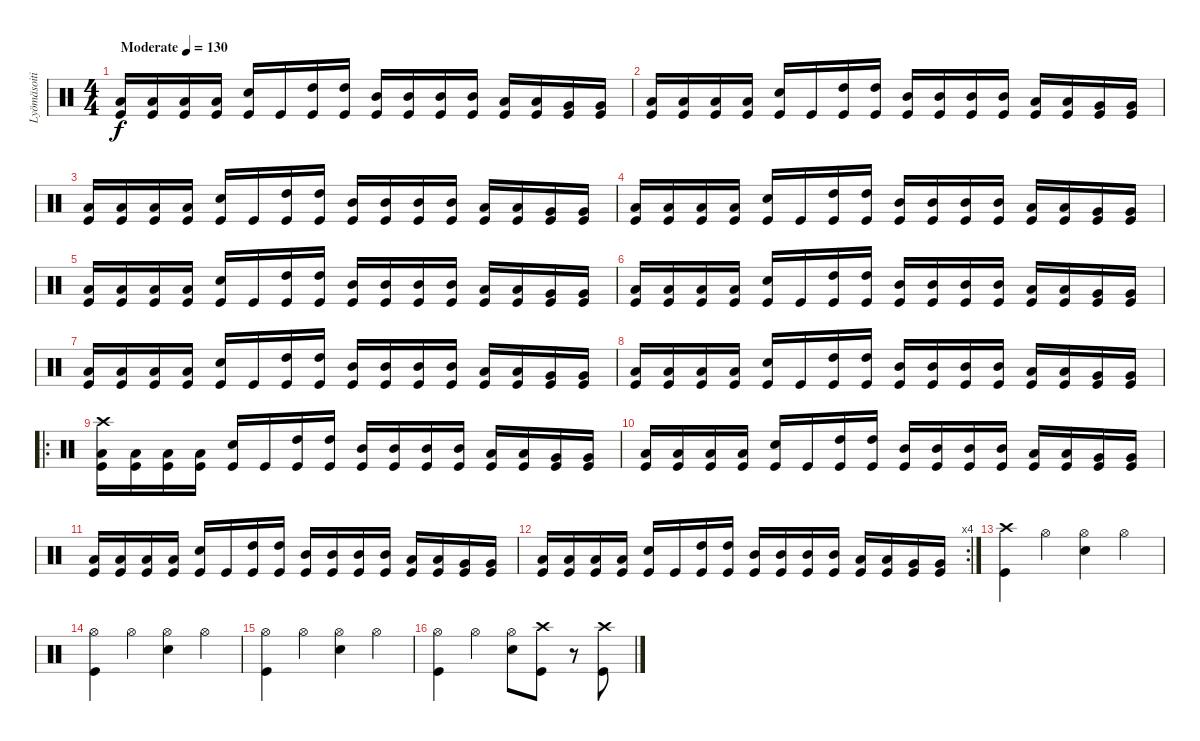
\track ("Lyömäsoitin" "Lyömäsoiti") {instrument percussion}
\staff {score}
\articulation defaults
\ts (4 4)
\tempo (130 "Moderate")
\clef neutral
\ks c
("Low Floor Tom (hit)" "Kick (hit)").16{dy f volume 12} ("Low Floor Tom (hit)" "Kick (hit)").16 ("Low Floor Tom (hit)" "Kick (hit)").16 ("Low Floor Tom (hit)" "Kick (hit)").16 ("Snare (hit) 2" "Kick (hit)").16 "Kick (hit)".16 ("High Tom (hit)" "Kick (hit)").16 ("High Tom (hit)" "Kick (hit)").16 ("Mid Tom (hit)" "Kick (hit)").16 ("Mid Tom (hit)" "Kick (hit)").16 ("Mid Tom (hit)" "Kick (hit)").16 ("Mid Tom (hit)" "Kick (hit)").16 ("Low Tom (hit)" "Kick (hit)").16 ("Low Tom (hit)" "Kick (hit)").16 ("Very Low Tom (hit)" "Kick (hit)").16 ("Very Low Tom (hit)" "Kick (hit)").16 |
("Low Floor Tom (hit)" "Kick (hit)").16 ("Low Floor Tom (hit)" "Kick (hit)").16 ("Low Floor Tom (hit)" "Kick (hit)").16 ("Low Floor Tom (hit)" "Kick (hit)").16 ("Snare (hit) 2" "Kick (hit)").16 "Kick (hit)".16 ("High Tom (hit)" "Kick (hit)").16 ("High Tom (hit)" "Kick (hit)").16 ("Mid Tom (hit)" "Kick (hit)").16 ("Mid Tom (hit)" "Kick (hit)").16 ("Mid Tom (hit)" "Kick (hit)").16 ("Mid Tom (hit)" "Kick (hit)").16 ("Low Tom (hit)" "Kick (hit)").16 ("Low Tom (hit)" "Kick (hit)").16 ("Very Low Tom (hit)" "Kick (hit)").16 ("Very Low Tom (hit)" "Kick (hit)").16 |
("Low Floor Tom (hit)" "Kick (hit)").16 ("Low Floor Tom (hit)" "Kick (hit)").16 ("Low Floor Tom (hit)" "Kick (hit)").16 ("Low Floor Tom (hit)" "Kick (hit)").16 ("Snare (hit) 2" "Kick (hit)").16 "Kick (hit)".16 ("High Tom (hit)" "Kick (hit)").16 ("High Tom (hit)" "Kick (hit)").16 ("Mid Tom (hit)" "Kick (hit)").16 ("Mid Tom (hit)" "Kick (hit)").16 ("Mid Tom (hit)" "Kick (hit)").16 ("Mid Tom (hit)" "Kick (hit)").16 ("Low Tom (hit)" "Kick (hit)").16 ("Low Tom (hit)" "Kick (hit)").16 ("Very Low Tom (hit)" "Kick (hit)").16 ("Very Low Tom (hit)" "Kick (hit)").16 |
("Low Floor Tom (hit)" "Kick (hit)").16 ("Low Floor Tom (hit)" "Kick (hit)").16 ("Low Floor Tom (hit)" "Kick (hit)").16 ("Low Floor Tom (hit)" "Kick (hit)").16 ("Snare (hit) 2" "Kick (hit)").16 "Kick (hit)".16 ("High Tom (hit)" "Kick (hit)").16 ("High Tom (hit)" "Kick (hit)").16 ("Mid Tom (hit)" "Kick (hit)").16 ("Mid Tom (hit)" "Kick (hit)").16 ("Mid Tom (hit)" "Kick (hit)").16 ("Mid Tom (hit)" "Kick (hit)").16 ("Low Tom (hit)" "Kick (hit)").16 ("Low Tom (hit)" "Kick (hit)").16 ("Very Low Tom (hit)" "Kick (hit)").16 ("Very Low Tom (hit)" "Kick (hit)").16 |
("Low Floor Tom (hit)" "Kick (hit)").16 ("Low Floor Tom (hit)" "Kick (hit)").16 ("Low Floor Tom (hit)" "Kick (hit)").16 ("Low Floor Tom (hit)" "Kick (hit)").16 ("Snare (hit) 2" "Kick (hit)").16 "Kick (hit)".16 ("High Tom (hit)" "Kick (hit)").16 ("High Tom (hit)" "Kick (hit)").16 ("Mid Tom (hit)" "Kick (hit)").16 ("Mid Tom (hit)" "Kick (hit)").16 ("Mid Tom (hit)" "Kick (hit)").16 ("Mid Tom (hit)" "Kick (hit)").16 ("Low Tom (hit)" "Kick (hit)").16 ("Low Tom (hit)" "Kick (hit)").16 ("Very Low Tom (hit)" "Kick (hit)").16 ("Very Low Tom (hit)" "Kick (hit)").16 |
("Low Floor Tom (hit)" "Kick (hit)").16 ("Low Floor Tom (hit)" "Kick (hit)").16 ("Low Floor Tom (hit)" "Kick (hit)").16 ("Low Floor Tom (hit)" "Kick (hit)").16 ("Snare (hit) 2" "Kick (hit)").16 "Kick (hit)".16 ("High Tom (hit)" "Kick (hit)").16 ("High Tom (hit)" "Kick (hit)").16 ("Mid Tom (hit)" "Kick (hit)").16 ("Mid Tom (hit)" "Kick (hit)").16 ("Mid Tom (hit)" "Kick (hit)").16 ("Mid Tom (hit)" "Kick (hit)").16 ("Low Tom (hit)" "Kick (hit)").16 ("Low Tom (hit)" "Kick (hit)").16 ("Very Low Tom (hit)" "Kick (hit)").16 ("Very Low Tom (hit)" "Kick (hit)").16 |
("Low Floor Tom (hit)" "Kick (hit)").16 ("Low Floor Tom (hit)" "Kick (hit)").16 ("Low Floor Tom (hit)" "Kick (hit)").16 ("Low Floor Tom (hit)" "Kick (hit)").16 ("Snare (hit) 2" "Kick (hit)").16 "Kick (hit)".16 ("High Tom (hit)" "Kick (hit)").16 ("High Tom (hit)" "Kick (hit)").16 ("Mid Tom (hit)" "Kick (hit)").16 ("Mid Tom (hit)" "Kick (hit)").16 ("Mid Tom (hit)" "Kick (hit)").16 ("Mid Tom (hit)" "Kick (hit)").16 ("Low Tom (hit)" "Kick (hit)").16 ("Low Tom (hit)" "Kick (hit)").16 ("Very Low Tom (hit)" "Kick (hit)").16 ("Very Low Tom (hit)" "Kick (hit)").16 |
("Low Floor Tom (hit)" "Kick (hit)").16 ("Low Floor Tom (hit)" "Kick (hit)").16 ("Low Floor Tom (hit)" "Kick (hit)").16 ("Low Floor Tom (hit)" "Kick (hit)").16 ("Snare (hit) 2" "Kick (hit)").16 "Kick (hit)".16 ("High Tom (hit)" "Kick (hit)").16 ("High Tom (hit)" "Kick (hit)").16 ("Mid Tom (hit)" "Kick (hit)").16 ("Mid Tom (hit)" "Kick (hit)").16 ("Mid Tom (hit)" "Kick (hit)").16 ("Mid Tom (hit)" "Kick (hit)").16 ("Low Tom (hit)" "Kick (hit)").16 ("Low Tom (hit)" "Kick (hit)").16 ("Very Low Tom (hit)" "Kick (hit)").16 ("Very Low Tom (hit)" "Kick (hit)").16 |
\ro
("Crash high (hit)" "Low Floor Tom (hit)" "Kick (hit)").16 ("Low Floor Tom (hit)" "Kick (hit)").16 ("Low Floor Tom (hit)" "Kick (hit)").16 ("Low Floor Tom (hit)" "Kick (hit)").16 ("Snare (hit) 2" "Kick (hit)").16 "Kick (hit)".16 ("High Tom (hit)" "Kick (hit)").16 ("High Tom (hit)" "Kick (hit)").16 ("Mid Tom (hit)" "Kick (hit)").16 ("Mid Tom (hit)" "Kick (hit)").16 ("Mid Tom (hit)" "Kick (hit)").16 ("Mid Tom (hit)" "Kick (hit)").16 ("Low Tom (hit)" "Kick (hit)").16 ("Low Tom (hit)" "Kick (hit)").16 ("Very Low Tom (hit)" "Kick (hit)").16 ("Very Low Tom (hit)" "Kick (hit)").16 |
("Low Floor Tom (hit)" "Kick (hit)").16 ("Low Floor Tom (hit)" "Kick (hit)").16 ("Low Floor Tom (hit)" "Kick (hit)").16 ("Low Floor Tom (hit)" "Kick (hit)").16 ("Snare (hit) 2" "Kick (hit)").16 "Kick (hit)".16 ("High Tom (hit)" "Kick (hit)").16 ("High Tom (hit)" "Kick (hit)").16 ("Mid Tom (hit)" "Kick (hit)").16 ("Mid Tom (hit)" "Kick (hit)").16 ("Mid Tom (hit)" "Kick (hit)").16 ("Mid Tom (hit)" "Kick (hit)").16 ("Low Tom (hit)" "Kick (hit)").16 ("Low Tom (hit)" "Kick (hit)").16 ("Very Low Tom (hit)" "Kick (hit)").16 ("Very Low Tom (hit)" "Kick (hit)").16 |
("Low Floor Tom (hit)" "Kick (hit)").16 ("Low Floor Tom (hit)" "Kick (hit)").16 ("Low Floor Tom (hit)" "Kick (hit)").16 ("Low Floor Tom (hit)" "Kick (hit)").16 ("Snare (hit) 2" "Kick (hit)").16 "Kick (hit)".16 ("High Tom (hit)" "Kick (hit)").16 ("High Tom (hit)" "Kick (hit)").16 ("Mid Tom (hit)" "Kick (hit)").16 ("Mid Tom (hit)" "Kick (hit)").16 ("Mid Tom (hit)" "Kick (hit)").16 ("Mid Tom (hit)" "Kick (hit)").16 ("Low Tom (hit)" "Kick (hit)").16 ("Low Tom (hit)" "Kick (hit)").16 ("Very Low Tom (hit)" "Kick (hit)").16 ("Very Low Tom (hit)" "Kick (hit)").16 |
\rc 4
("Low Floor Tom (hit)" "Kick (hit)").16 ("Low Floor Tom (hit)" "Kick (hit)").16 ("Low Floor Tom (hit)" "Kick (hit)").16 ("Low Floor Tom (hit)" "Kick (hit)").16 ("Snare (hit) 2" "Kick (hit)").16 "Kick (hit)".16 ("High Tom (hit)" "Kick (hit)").16 ("High Tom (hit)" "Kick (hit)").16 ("Mid Tom (hit)" "Kick (hit)").16 ("Mid Tom (hit)" "Kick (hit)").16 ("Mid Tom (hit)" "Kick (hit)").16 ("Mid Tom (hit)" "Kick (hit)").16 ("Low Tom (hit)" "Kick (hit)").16 ("Low Tom (hit)" "Kick (hit)").16 ("Very Low Tom (hit)" "Kick (hit)").16 ("Very Low Tom (hit)" "Kick (hit)").16 |
("Crash high (hit)" "Kick (hit)").4 "Hi-Hat (open)".4 ("Hi-Hat (open)" "Snare (hit) 2").4 "Hi-Hat (open)".4 |
("Hi-Hat (open)" "Kick (hit)").4 "Hi-Hat (open)".4 ("Hi-Hat (open)" "Snare (hit) 2").4 "Hi-Hat (open)".4 |
("Hi-Hat (open)" "Kick (hit)").4 "Hi-Hat (open)".4 ("Hi-Hat (open)" "Snare (hit) 2").4 "Hi-Hat (open)".4 |
("Hi-Hat (open)" "Kick (hit)").4 "Hi-Hat (open)".4 ("Hi-Hat (open)" "Snare (hit) 2").8 ("Crash high (hit)" "Kick (hit)").8 r.8 ("Crash high (hit)" "Kick (hit)").8
